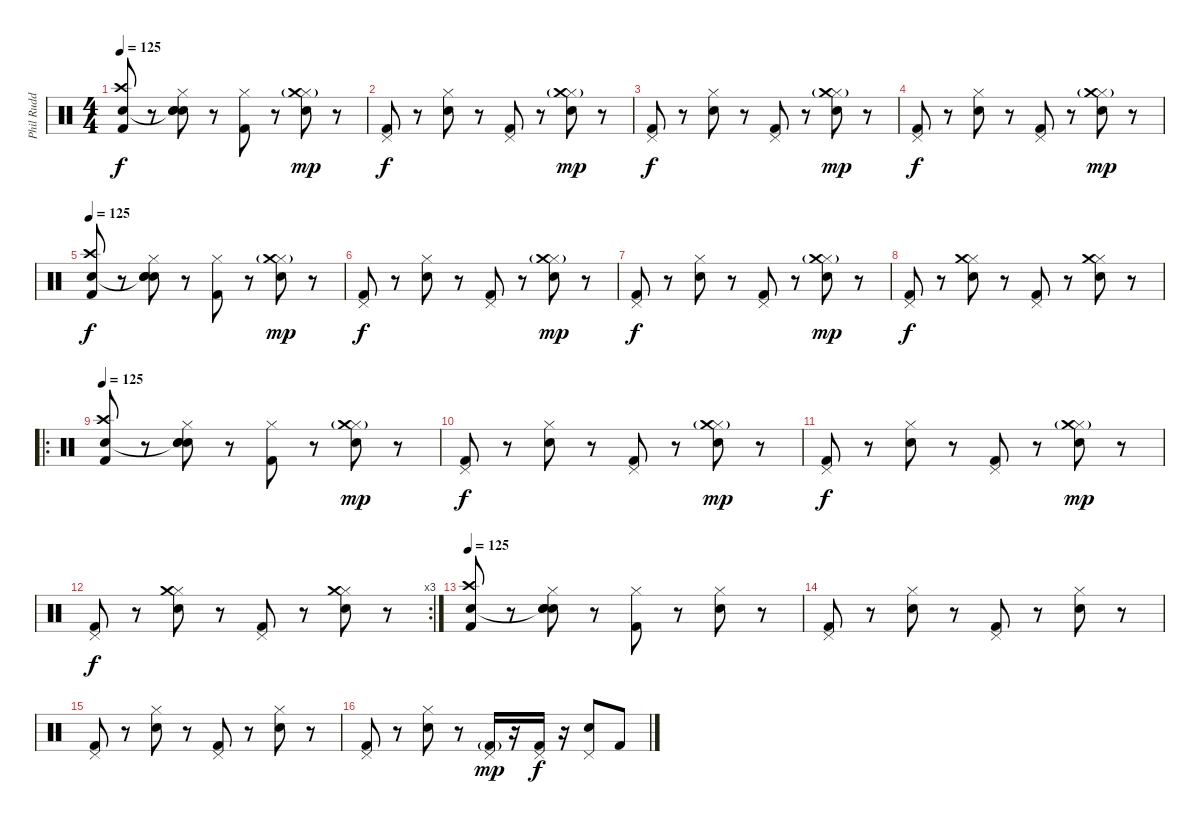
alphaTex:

\track ("Phil Rudd" "Phil Rudd") {instrument percussion}
\staff {score}
\articulation defaults
\ts (4 4)
\tempo 125
\clef neutral
\ks c
("Kick (hit) 2" "Crash high (hit)" "Snare (hit) 2").8{dy f} r.8 ("Hi-Hat (closed)" "Snare (hit) 2" "Snare (hit)"{t} "Snare (hit)").8 r.8 ("Kick (hit) 2" "Hi-Hat (closed)").8 r.8 ("Hi-Hat (closed)" "Snare (hit) 2" "Crash medium (hit)"{g}).8{dy mp} r.8 |
("Kick (hit) 2" "Pedal Hi-Hat (hit)").8{dy f} r.8 ("Snare (hit) 2" "Hi-Hat (closed)").8 r.8 ("Kick (hit) 2" "Pedal Hi-Hat (hit)").8 r.8 ("Snare (hit) 2" "Hi-Hat (closed)" "Crash medium (hit)"{g}).8{dy mp} r.8 |
("Kick (hit) 2" "Pedal Hi-Hat (hit)").8{dy f} r.8 ("Snare (hit) 2" "Hi-Hat (closed)").8 r.8 ("Kick (hit) 2" "Pedal Hi-Hat (hit)").8 r.8 ("Snare (hit) 2" "Hi-Hat (closed)" "Crash medium (hit)"{g}).8{dy mp} r.8 |
("Kick (hit) 2" "Pedal Hi-Hat (hit)").8{dy f} r.8 ("Snare (hit) 2" "Hi-Hat (closed)").8 r.8 ("Kick (hit) 2" "Pedal Hi-Hat (hit)").8 r.8 ("Snare (hit) 2" "Hi-Hat (closed)" "Crash medium (hit)"{g}).8{dy mp} r.8 |
\tempo 125
("Kick (hit) 2" "Crash high (hit)" "Snare (hit) 2").8{dy f} r.8 ("Hi-Hat (closed)" "Snare (hit) 2" "Snare (hit)"{t} "Snare (hit)").8 r.8 ("Kick (hit) 2" "Hi-Hat (closed)").8 r.8 ("Hi-Hat (closed)" "Snare (hit) 2" "Crash medium (hit)"{g}).8{dy mp} r.8 |
("Kick (hit) 2" "Pedal Hi-Hat (hit)").8{dy f} r.8 ("Snare (hit) 2" "Hi-Hat (closed)").8 r.8 ("Kick (hit) 2" "Pedal Hi-Hat (hit)").8 r.8 ("Snare (hit) 2" "Hi-Hat (closed)" "Crash medium (hit)"{g}).8{dy mp} r.8 |
("Kick (hit) 2" "Pedal Hi-Hat (hit)").8{dy f} r.8 ("Snare (hit) 2" "Hi-Hat (closed)").8 r.8 ("Kick (hit) 2" "Pedal Hi-Hat (hit)").8 r.8 ("Snare (hit) 2" "Hi-Hat (closed)" "Crash medium (hit)"{g}).8{dy mp} r.8 |
("Kick (hit) 2" "Pedal Hi-Hat (hit)").8{dy f} r.8 ("Snare (hit) 2" "Hi-Hat (closed)" "Crash medium (hit)").8 r.8 ("Kick (hit) 2" "Pedal Hi-Hat (hit)").8 r.8 ("Snare (hit) 2" "Hi-Hat (closed)" "Crash medium (hit)").8 r.8 |
\ro
\tempo 125
("Kick (hit) 2" "Crash high (hit)" "Snare (hit) 2").8 r.8 ("Hi-Hat (closed)" "Snare (hit) 2" "Snare (hit)"{t} "Snare (hit)").8 r.8 ("Kick (hit) 2" "Hi-Hat (closed)").8 r.8 ("Hi-Hat (closed)" "Snare (hit) 2" "Crash medium (hit)"{g}).8{dy mp} r.8 |
("Kick (hit) 2" "Pedal Hi-Hat (hit)").8{dy f} r.8 ("Snare (hit) 2" "Hi-Hat (closed)").8 r.8 ("Kick (hit) 2" "Pedal Hi-Hat (hit)").8 r.8 ("Snare (hit) 2" "Hi-Hat (closed)" "Crash medium (hit)"{g}).8{dy mp} r.8 |
("Kick (hit) 2" "Pedal Hi-Hat (hit)").8{dy f} r.8 ("Snare (hit) 2" "Hi-Hat (closed)").8 r.8 ("Kick (hit) 2" "Pedal Hi-Hat (hit)").8 r.8 ("Snare (hit) 2" "Hi-Hat (closed)" "Crash medium (hit)"{g}).8{dy mp} r.8 |
\rc 3
("Kick (hit) 2" "Pedal Hi-Hat (hit)").8{dy f} r.8 ("Snare (hit) 2" "Hi-Hat (closed)" "Crash medium (hit)").8 r.8 ("Kick (hit) 2" "Pedal Hi-Hat (hit)").8 r.8 ("Snare (hit) 2" "Hi-Hat (closed)" "Crash medium (hit)").8 r.8 |
\tempo 125
("Kick (hit) 2" "Crash high (hit)" "Snare (hit) 2").8 r.8 ("Hi-Hat (closed)" "Snare (hit) 2" "Snare (hit)"{t} "Snare (hit)").8 r.8 ("Kick (hit) 2" "Hi-Hat (closed)").8 r.8 ("Hi-Hat (closed)" "Snare (hit) 2").8 r.8 |
("Kick (hit) 2" "Pedal Hi-Hat (hit)").8 r.8 ("Snare (hit) 2" "Hi-Hat (closed)").8 r.8 ("Kick (hit) 2" "Pedal Hi-Hat (hit)").8 r.8 ("Snare (hit) 2" "Hi-Hat (closed)").8 r.8 |
("Kick (hit) 2" "Pedal Hi-Hat (hit)").8 r.8 ("Snare (hit) 2" "Hi-Hat (closed)").8 r.8 ("Kick (hit) 2" "Pedal Hi-Hat (hit)").8 r.8 ("Snare (hit) 2" "Hi-Hat (closed)").8 r.8 |
("Kick (hit) 2" "Pedal Hi-Hat (hit)").8 r.8 ("Snare (hit) 2" "Hi-Hat (closed)").8 r.8 ("Kick (hit) 2"{g} "Pedal Hi-Hat (hit)").16{dy mp} r.16 ("Kick (hit) 2" "Pedal Hi-Hat (hit)").16{dy f} r.16 ("Snare (hit) 2" "Pedal Hi-Hat (hit)").8 "Kick (hit) 2".8
